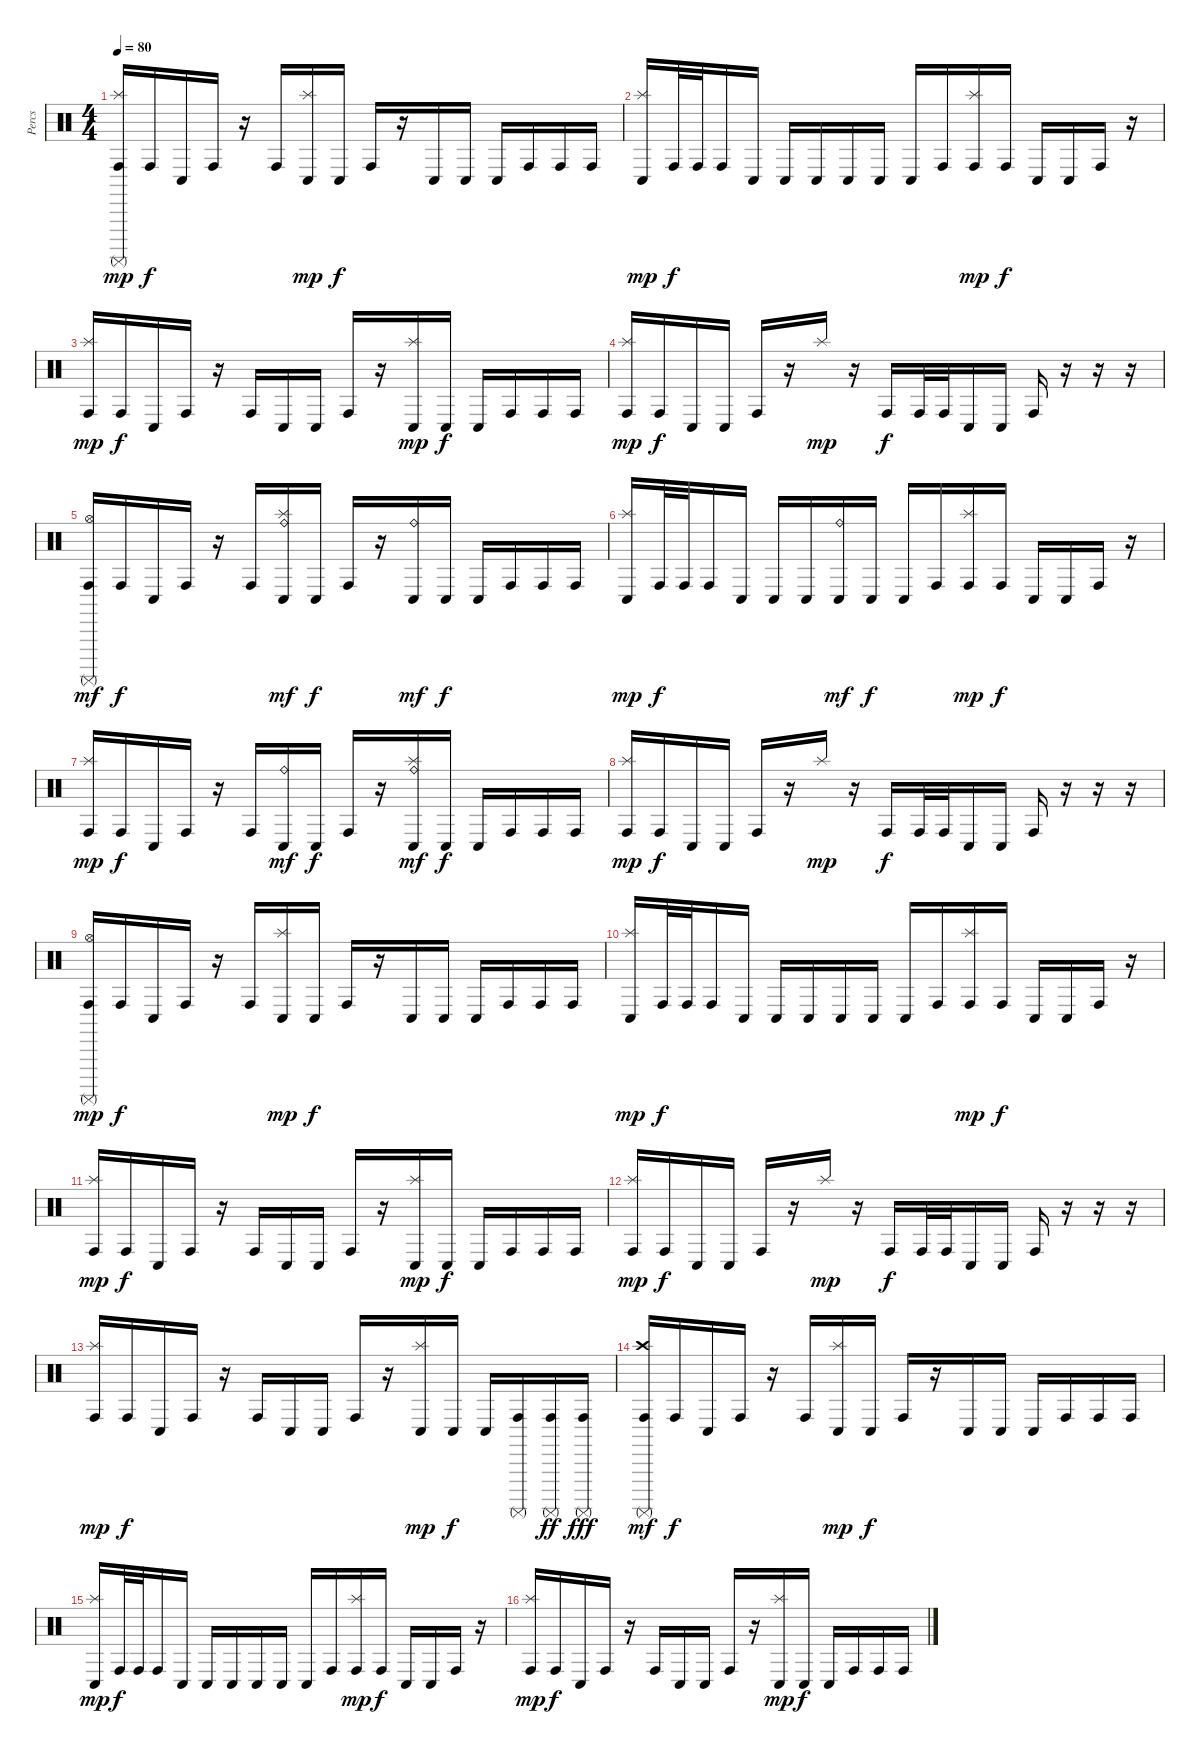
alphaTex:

\track ("Percs" "Percs") {instrument percussion}
\staff {score}
\articulation defaults
\ts (4 4)
\tempo 80
\clef neutral
\ks c
("Splash (hit)" "Conga high (hit)" "Surdo (mute)").16{dy mp} "Conga high (hit)".16{dy f} "Conga low (hit)".16 "Conga high (hit)".16 r.16 "Conga high (hit)".16 ("Splash (hit)" "Conga low (hit)").16{dy mp} "Conga low (hit)".16{dy f} "Conga high (hit)".16 r.16 "Conga low (hit)".16 "Conga low (hit)".16 "Conga low (hit)".16 "Conga high (hit)".16 "Conga high (hit)".16 "Conga high (hit)".16 |
("Splash (hit)" "Conga low (hit)").16{dy mp} "Conga high (hit)".32{dy f} "Conga high (hit)".32 "Conga high (hit)".16 "Conga low (hit)".16 "Conga low (hit)".16 "Conga low (hit)".16 "Conga low (hit)".16 "Conga low (hit)".16 "Conga low (hit)".16 "Conga high (hit)".16 ("Splash (hit)" "Conga high (hit)").16{dy mp} "Conga high (hit)".16{dy f} "Conga low (hit)".16 "Conga low (hit)".16 "Conga high (hit)".16 r.16 |
("Splash (hit)" "Conga high (hit)").16{dy mp} "Conga high (hit)".16{dy f} "Conga low (hit)".16 "Conga high (hit)".16 r.16 "Conga high (hit)".16 "Conga low (hit)".16 "Conga low (hit)".16 "Conga high (hit)".16 r.16 ("Splash (hit)" "Conga low (hit)").16{dy mp} "Conga low (hit)".16{dy f} "Conga low (hit)".16 "Conga high (hit)".16 "Conga high (hit)".16 "Conga high (hit)".16 |
("Splash (hit)" "Conga high (hit)").16{dy mp} "Conga high (hit)".16{dy f} "Conga low (hit)".16 "Conga low (hit)".16 "Conga high (hit)".16 r.16 "Splash (hit)".16{dy mp} r.16 "Conga high (hit)".16{dy f} "Conga high (hit)".32 "Conga high (hit)".32 "Conga low (hit)".16 "Conga low (hit)".16 "Conga high (hit)".16 r.16 r.16 r.16 |
("Hi-Hat (open)" "Conga high (hit)" "Surdo (mute)").16{dy mf} "Conga high (hit)".16{dy f} "Conga low (hit)".16 "Conga high (hit)".16 r.16 "Conga high (hit)".16 ("Splash (hit)" "Ride (bell)" "Conga low (hit)").16{dy mf} "Conga low (hit)".16{dy f} "Conga high (hit)".16 r.16 ("Ride (bell)" "Conga low (hit)").16{dy mf} "Conga low (hit)".16{dy f} "Conga low (hit)".16 "Conga high (hit)".16 "Conga high (hit)".16 "Conga high (hit)".16 |
("Splash (hit)" "Conga low (hit)").16{dy mp} "Conga high (hit)".32{dy f} "Conga high (hit)".32 "Conga high (hit)".16 "Conga low (hit)".16 "Conga low (hit)".16 "Conga low (hit)".16 ("Ride (bell)" "Conga low (hit)").16{dy mf} "Conga low (hit)".16{dy f} "Conga low (hit)".16 "Conga high (hit)".16 ("Splash (hit)" "Conga high (hit)").16{dy mp} "Conga high (hit)".16{dy f} "Conga low (hit)".16 "Conga low (hit)".16 "Conga high (hit)".16 r.16 |
("Splash (hit)" "Conga high (hit)").16{dy mp} "Conga high (hit)".16{dy f} "Conga low (hit)".16 "Conga high (hit)".16 r.16 "Conga high (hit)".16 ("Ride (bell)" "Conga low (hit)").16{dy mf} "Conga low (hit)".16{dy f} "Conga high (hit)".16 r.16 ("Splash (hit)" "Ride (bell)" "Conga low (hit)").16{dy mf} "Conga low (hit)".16{dy f} "Conga low (hit)".16 "Conga high (hit)".16 "Conga high (hit)".16 "Conga high (hit)".16 |
("Splash (hit)" "Conga high (hit)").16{dy mp} "Conga high (hit)".16{dy f} "Conga low (hit)".16 "Conga low (hit)".16 "Conga high (hit)".16 r.16 "Splash (hit)".16{dy mp} r.16 "Conga high (hit)".16{dy f} "Conga high (hit)".32 "Conga high (hit)".32 "Conga low (hit)".16 "Conga low (hit)".16 "Conga high (hit)".16 r.16 r.16 r.16 |
("Hi-Hat (open)" "Conga high (hit)" "Surdo (mute)").16{dy mp} "Conga high (hit)".16{dy f} "Conga low (hit)".16 "Conga high (hit)".16 r.16 "Conga high (hit)".16 ("Splash (hit)" "Conga low (hit)").16{dy mp} "Conga low (hit)".16{dy f} "Conga high (hit)".16 r.16 "Conga low (hit)".16 "Conga low (hit)".16 "Conga low (hit)".16 "Conga high (hit)".16 "Conga high (hit)".16 "Conga high (hit)".16 |
("Splash (hit)" "Conga low (hit)").16{dy mp} "Conga high (hit)".32{dy f} "Conga high (hit)".32 "Conga high (hit)".16 "Conga low (hit)".16 "Conga low (hit)".16 "Conga low (hit)".16 "Conga low (hit)".16 "Conga low (hit)".16 "Conga low (hit)".16 "Conga high (hit)".16 ("Splash (hit)" "Conga high (hit)").16{dy mp} "Conga high (hit)".16{dy f} "Conga low (hit)".16 "Conga low (hit)".16 "Conga high (hit)".16 r.16 |
("Splash (hit)" "Conga high (hit)").16{dy mp} "Conga high (hit)".16{dy f} "Conga low (hit)".16 "Conga high (hit)".16 r.16 "Conga high (hit)".16 "Conga low (hit)".16 "Conga low (hit)".16 "Conga high (hit)".16 r.16 ("Splash (hit)" "Conga low (hit)").16{dy mp} "Conga low (hit)".16{dy f} "Conga low (hit)".16 "Conga high (hit)".16 "Conga high (hit)".16 "Conga high (hit)".16 |
("Splash (hit)" "Conga high (hit)").16{dy mp} "Conga high (hit)".16{dy f} "Conga low (hit)".16 "Conga low (hit)".16 "Conga high (hit)".16 r.16 "Splash (hit)".16{dy mp} r.16 "Conga high (hit)".16{dy f} "Conga high (hit)".32 "Conga high (hit)".32 "Conga low (hit)".16 "Conga low (hit)".16 "Conga high (hit)".16 r.16 r.16 r.16 |
("Splash (hit)" "Conga high (hit)").16{dy mp} "Conga high (hit)".16{dy f} "Conga low (hit)".16 "Conga high (hit)".16 r.16 "Conga high (hit)".16 "Conga low (hit)".16 "Conga low (hit)".16 "Conga high (hit)".16 r.16 ("Splash (hit)" "Conga low (hit)").16{dy mp} "Conga low (hit)".16{dy f} "Conga low (hit)".16 ("Conga high (hit)" "Surdo (mute)").16 ("Conga high (hit)" "Surdo (mute)").16{dy ff} ("Conga high (hit)" "Surdo (mute)").16{dy fff} |
("Crash high (hit)" "Conga high (hit)" "Surdo (mute)").16{dy mf} "Conga high (hit)".16{dy f} "Conga low (hit)".16 "Conga high (hit)".16 r.16 "Conga high (hit)".16 ("Splash (hit)" "Conga low (hit)").16{dy mp} "Conga low (hit)".16{dy f} "Conga high (hit)".16 r.16 "Conga low (hit)".16 "Conga low (hit)".16 "Conga low (hit)".16 "Conga high (hit)".16 "Conga high (hit)".16 "Conga high (hit)".16 |
("Splash (hit)" "Conga low (hit)").16{dy mp} "Conga high (hit)".32{dy f} "Conga high (hit)".32 "Conga high (hit)".16 "Conga low (hit)".16 "Conga low (hit)".16 "Conga low (hit)".16 "Conga low (hit)".16 "Conga low (hit)".16 "Conga low (hit)".16 "Conga high (hit)".16 ("Splash (hit)" "Conga high (hit)").16{dy mp} "Conga high (hit)".16{dy f} "Conga low (hit)".16 "Conga low (hit)".16 "Conga high (hit)".16 r.16 |
("Splash (hit)" "Conga high (hit)").16{dy mp} "Conga high (hit)".16{dy f} "Conga low (hit)".16 "Conga high (hit)".16 r.16 "Conga high (hit)".16 "Conga low (hit)".16 "Conga low (hit)".16 "Conga high (hit)".16 r.16 ("Splash (hit)" "Conga low (hit)").16{dy mp} "Conga low (hit)".16{dy f} "Conga low (hit)".16 "Conga high (hit)".16 "Conga high (hit)".16 "Conga high (hit)".16
